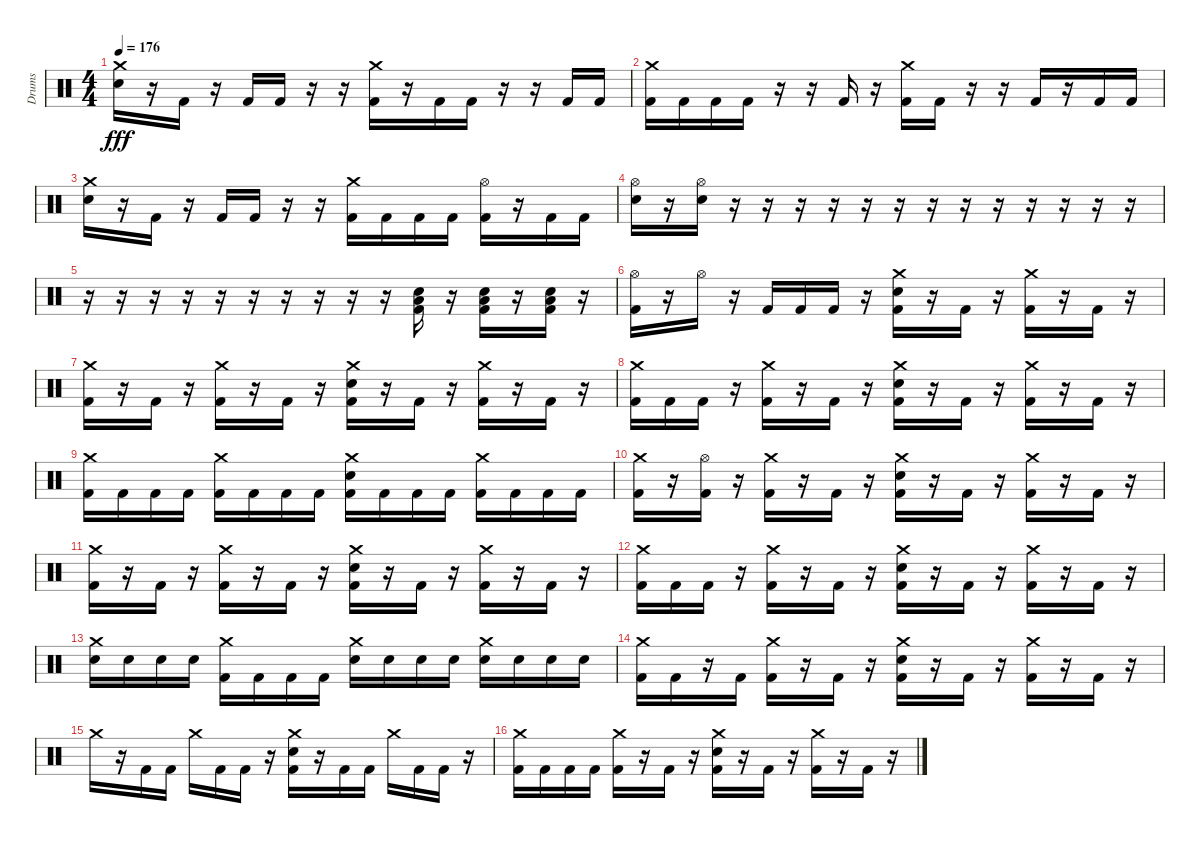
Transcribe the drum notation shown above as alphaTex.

\track ("Drums" "Drums") {instrument percussion}
\staff {score}
\articulation defaults
\ts (4 4)
\tempo 176
\clef neutral
\ks c
("Crash medium (hit)" "Electric Snare (hit)").16{dy fff} r.16 "Kick (hit) 2".16 r.16 "Kick (hit) 2".16 "Kick (hit) 2".16 r.16 r.16 ("Crash medium (hit)" "Kick (hit) 2").16 r.16 "Kick (hit) 2".16 "Kick (hit) 2".16 r.16 r.16 "Kick (hit) 2".16 "Kick (hit) 2".16 |
("Crash medium (hit)" "Kick (hit) 2").16 "Kick (hit) 2".16 "Kick (hit) 2".16 "Kick (hit) 2".16 r.16 r.16 "Kick (hit) 2".16 r.16 ("Crash medium (hit)" "Kick (hit) 2").16 "Kick (hit) 2".16 r.16 r.16 "Kick (hit) 2".16 r.16 "Kick (hit) 2".16 "Kick (hit) 2".16 |
("Crash medium (hit)" "Electric Snare (hit)").16 r.16 "Kick (hit) 2".16 r.16 "Kick (hit) 2".16 "Kick (hit) 2".16 r.16 r.16 ("Crash medium (hit)" "Kick (hit) 2").16 "Kick (hit) 2".16 "Kick (hit) 2".16 "Kick (hit) 2".16 ("Kick (hit) 2" "Hi-Hat (open)").16 r.16 "Kick (hit) 2".16 "Kick (hit) 2".16 |
("Hi-Hat (open)" "Electric Snare (hit)").16 r.16 ("Hi-Hat (open)" "Electric Snare (hit)").16 r.16 r.16 r.16 r.16 r.16 r.16 r.16 r.16 r.16 r.16 r.16 r.16 r.16 |
r.16 r.16 r.16 r.16 r.16 r.16 r.16 r.16 r.16 r.16 ("Electric Snare (hit)" "Kick (hit) 2" "Low Tom (hit)").16 r.16 ("Electric Snare (hit)" "Kick (hit) 2" "Low Tom (hit)").16 r.16 ("Electric Snare (hit)" "Kick (hit) 2" "Low Tom (hit)").16 r.16 |
("Kick (hit) 2" "Hi-Hat (open)").16 r.16 "Hi-Hat (open)".16 r.16 "Kick (hit) 2".16 "Kick (hit) 2".16 "Kick (hit) 2".16 r.16 ("Kick (hit) 2" "Crash medium (hit)" "Electric Snare (hit)").16 r.16 "Kick (hit) 2".16 r.16 ("Kick (hit) 2" "Crash medium (hit)").16 r.16 "Kick (hit) 2".16 r.16 |
("Crash medium (hit)" "Kick (hit) 2").16 r.16 "Kick (hit) 2".16 r.16 ("Crash medium (hit)" "Kick (hit) 2").16 r.16 "Kick (hit) 2".16 r.16 ("Crash medium (hit)" "Kick (hit) 2" "Electric Snare (hit)").16 r.16 "Kick (hit) 2".16 r.16 ("Crash medium (hit)" "Kick (hit) 2").16 r.16 "Kick (hit) 2".16 r.16 |
("Crash medium (hit)" "Kick (hit) 2").16 "Kick (hit) 2".16 "Kick (hit) 2".16 r.16 ("Crash medium (hit)" "Kick (hit) 2").16 r.16 "Kick (hit) 2".16 r.16 ("Crash medium (hit)" "Kick (hit) 2" "Electric Snare (hit)").16 r.16 "Kick (hit) 2".16 r.16 ("Crash medium (hit)" "Kick (hit) 2").16 r.16 "Kick (hit) 2".16 r.16 |
("Crash medium (hit)" "Kick (hit) 2").16 "Kick (hit) 2".16 "Kick (hit) 2".16 "Kick (hit) 2".16 ("Crash medium (hit)" "Kick (hit) 2").16 "Kick (hit) 2".16 "Kick (hit) 2".16 "Kick (hit) 2".16 ("Crash medium (hit)" "Kick (hit) 2" "Electric Snare (hit)").16 "Kick (hit) 2".16 "Kick (hit) 2".16 "Kick (hit) 2".16 ("Crash medium (hit)" "Kick (hit) 2").16 "Kick (hit) 2".16 "Kick (hit) 2".16 "Kick (hit) 2".16 |
("Crash medium (hit)" "Kick (hit) 2").16 r.16 ("Kick (hit) 2" "Hi-Hat (open)").16 r.16 ("Crash medium (hit)" "Kick (hit) 2").16 r.16 "Kick (hit) 2".16 r.16 ("Crash medium (hit)" "Kick (hit) 2" "Electric Snare (hit)").16 r.16 "Kick (hit) 2".16 r.16 ("Crash medium (hit)" "Kick (hit) 2").16 r.16 "Kick (hit) 2".16 r.16 |
("Crash medium (hit)" "Kick (hit) 2").16 r.16 "Kick (hit) 2".16 r.16 ("Crash medium (hit)" "Kick (hit) 2").16 r.16 "Kick (hit) 2".16 r.16 ("Crash medium (hit)" "Kick (hit) 2" "Electric Snare (hit)").16 r.16 "Kick (hit) 2".16 r.16 ("Crash medium (hit)" "Kick (hit) 2").16 r.16 "Kick (hit) 2".16 r.16 |
("Crash medium (hit)" "Kick (hit) 2").16 "Kick (hit) 2".16 "Kick (hit) 2".16 r.16 ("Crash medium (hit)" "Kick (hit) 2").16 r.16 "Kick (hit) 2".16 r.16 ("Crash medium (hit)" "Kick (hit) 2" "Electric Snare (hit)").16 r.16 "Kick (hit) 2".16 r.16 ("Crash medium (hit)" "Kick (hit) 2").16 r.16 "Kick (hit) 2".16 r.16 |
("Electric Snare (hit)" "Crash medium (hit)").16 "Electric Snare (hit)".16 "Electric Snare (hit)".16 "Electric Snare (hit)".16 ("Kick (hit) 2" "Crash medium (hit)").16 "Kick (hit) 2".16 "Kick (hit) 2".16 "Kick (hit) 2".16 ("Electric Snare (hit)" "Crash medium (hit)").16 "Electric Snare (hit)".16 "Electric Snare (hit)".16 "Electric Snare (hit)".16 ("Electric Snare (hit)" "Crash medium (hit)").16 "Electric Snare (hit)".16 "Electric Snare (hit)".16 "Electric Snare (hit)".16 |
("Crash medium (hit)" "Kick (hit) 2").16 "Kick (hit) 2".16 r.16 "Kick (hit) 2".16 ("Crash medium (hit)" "Kick (hit) 2").16 r.16 "Kick (hit) 2".16 r.16 ("Crash medium (hit)" "Kick (hit) 2" "Electric Snare (hit)").16 r.16 "Kick (hit) 2".16 r.16 ("Crash medium (hit)" "Kick (hit) 2").16 r.16 "Kick (hit) 2".16 r.16 |
"Crash medium (hit)".16 r.16 "Kick (hit) 2".16 "Kick (hit) 2".16 "Crash medium (hit)".16 "Kick (hit) 2".16 "Kick (hit) 2".16 r.16 ("Crash medium (hit)" "Kick (hit) 2" "Electric Snare (hit)").16 r.16 "Kick (hit) 2".16 "Kick (hit) 2".16 "Crash medium (hit)".16 "Kick (hit) 2".16 "Kick (hit) 2".16 r.16 |
("Crash medium (hit)" "Kick (hit) 2").16 "Kick (hit) 2".16 "Kick (hit) 2".16 "Kick (hit) 2".16 ("Crash medium (hit)" "Kick (hit) 2").16 r.16 "Kick (hit) 2".16 r.16 ("Crash medium (hit)" "Kick (hit) 2" "Electric Snare (hit)").16 r.16 "Kick (hit) 2".16 r.16 ("Crash medium (hit)" "Kick (hit) 2").16 r.16 "Kick (hit) 2".16 r.16
